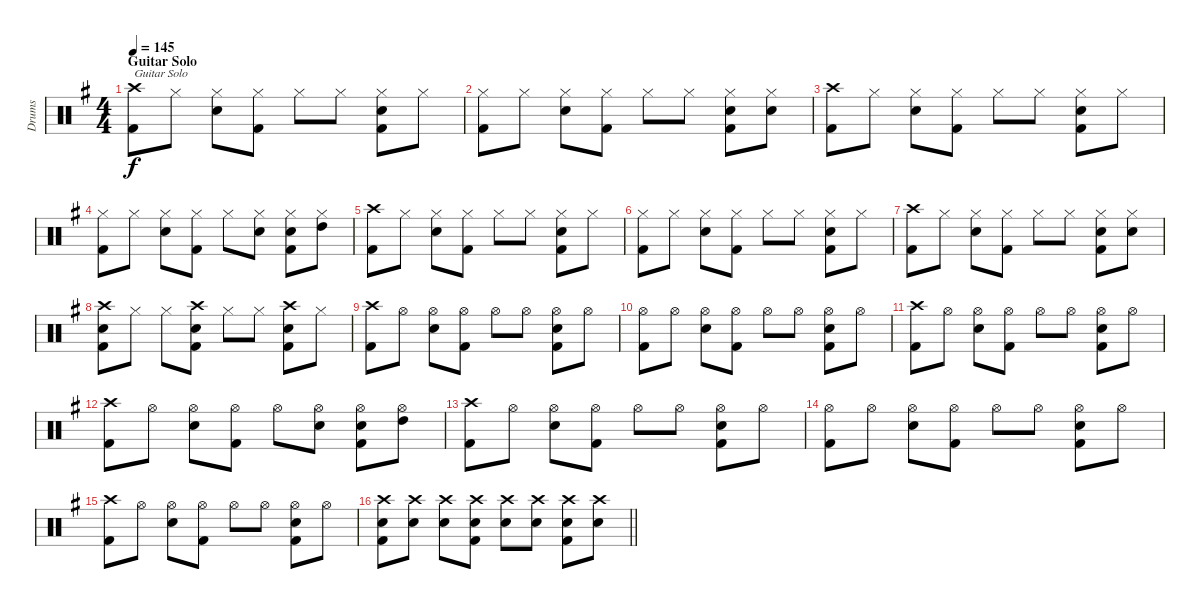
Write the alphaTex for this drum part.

\track ("Drums" "Drums") {instrument percussion}
\staff {score}
\articulation defaults
\ts (4 4)
\section ("" "Guitar Solo")
\tempo 145
\clef neutral
\ks g
("Crash high (hit)" "Kick (hit) 2").8{txt "Guitar Solo" dy f} "Hi-Hat (closed)".8 ("Hi-Hat (closed)" "Electric Snare (hit)").8 ("Hi-Hat (closed)" "Kick (hit) 2").8 "Hi-Hat (closed)".8 "Hi-Hat (closed)".8 ("Hi-Hat (closed)" "Electric Snare (hit)" "Kick (hit) 2").8 "Hi-Hat (closed)".8 |
("Hi-Hat (closed)" "Kick (hit) 2").8 "Hi-Hat (closed)".8 ("Hi-Hat (closed)" "Electric Snare (hit)").8 ("Hi-Hat (closed)" "Kick (hit) 2").8 "Hi-Hat (closed)".8 "Hi-Hat (closed)".8 ("Hi-Hat (closed)" "Electric Snare (hit)" "Kick (hit) 2").8 ("Hi-Hat (closed)" "Electric Snare (hit)").8 |
("Crash high (hit)" "Kick (hit) 2").8 "Hi-Hat (closed)".8 ("Hi-Hat (closed)" "Electric Snare (hit)").8 ("Hi-Hat (closed)" "Kick (hit) 2").8 "Hi-Hat (closed)".8 "Hi-Hat (closed)".8 ("Hi-Hat (closed)" "Electric Snare (hit)" "Kick (hit) 2").8 "Hi-Hat (closed)".8 |
("Hi-Hat (closed)" "Kick (hit) 2").8 "Hi-Hat (closed)".8 ("Hi-Hat (closed)" "Electric Snare (hit)").8 ("Hi-Hat (closed)" "Kick (hit) 2").8 "Hi-Hat (closed)".8 ("Hi-Hat (closed)" "Electric Snare (hit)").8 ("Hi-Hat (closed)" "Electric Snare (hit)" "Kick (hit) 2").8 ("Hi-Hat (closed)" "High Tom (hit)").8 |
("Crash high (hit)" "Kick (hit) 2").8 "Hi-Hat (closed)".8 ("Hi-Hat (closed)" "Electric Snare (hit)").8 ("Hi-Hat (closed)" "Kick (hit) 2").8 "Hi-Hat (closed)".8 "Hi-Hat (closed)".8 ("Hi-Hat (closed)" "Electric Snare (hit)" "Kick (hit) 2").8 "Hi-Hat (closed)".8 |
("Hi-Hat (closed)" "Kick (hit) 2").8 "Hi-Hat (closed)".8 ("Hi-Hat (closed)" "Electric Snare (hit)").8 ("Hi-Hat (closed)" "Kick (hit) 2").8 "Hi-Hat (closed)".8 "Hi-Hat (closed)".8 ("Hi-Hat (closed)" "Electric Snare (hit)" "Kick (hit) 2").8 "Hi-Hat (closed)".8 |
("Crash high (hit)" "Kick (hit) 2").8 "Hi-Hat (closed)".8 ("Hi-Hat (closed)" "Electric Snare (hit)").8 ("Hi-Hat (closed)" "Kick (hit) 2").8 "Hi-Hat (closed)".8 "Hi-Hat (closed)".8 ("Hi-Hat (closed)" "Electric Snare (hit)" "Kick (hit) 2").8 ("Hi-Hat (closed)" "Electric Snare (hit)").8 |
("Crash high (hit)" "Electric Snare (hit)" "Kick (hit) 2").8 "Hi-Hat (closed)".8 "Hi-Hat (closed)".8 ("Crash high (hit)" "Electric Snare (hit)" "Kick (hit) 2").8 "Hi-Hat (closed)".8 "Hi-Hat (closed)".8 ("Crash high (hit)" "Electric Snare (hit)" "Kick (hit) 2").8 "Hi-Hat (closed)".8 |
("Crash high (hit)" "Kick (hit) 2").8 "Hi-Hat (open)".8 ("Hi-Hat (open)" "Electric Snare (hit)").8 ("Hi-Hat (open)" "Kick (hit) 2").8 "Hi-Hat (open)".8 "Hi-Hat (open)".8 ("Hi-Hat (open)" "Electric Snare (hit)" "Kick (hit) 2").8 "Hi-Hat (open)".8 |
("Hi-Hat (open)" "Kick (hit) 2").8 "Hi-Hat (open)".8 ("Hi-Hat (open)" "Electric Snare (hit)").8 ("Hi-Hat (open)" "Kick (hit) 2").8 "Hi-Hat (open)".8 "Hi-Hat (open)".8 ("Hi-Hat (open)" "Electric Snare (hit)" "Kick (hit) 2").8 "Hi-Hat (open)".8 |
("Crash high (hit)" "Kick (hit) 2").8 "Hi-Hat (open)".8 ("Hi-Hat (open)" "Electric Snare (hit)").8 ("Hi-Hat (open)" "Kick (hit) 2").8 "Hi-Hat (open)".8 "Hi-Hat (open)".8 ("Hi-Hat (open)" "Electric Snare (hit)" "Kick (hit) 2").8 "Hi-Hat (open)".8 |
("Crash high (hit)" "Kick (hit) 2").8 "Hi-Hat (open)".8 ("Hi-Hat (open)" "Electric Snare (hit)").8 ("Hi-Hat (open)" "Kick (hit) 2").8 "Hi-Hat (open)".8 ("Hi-Hat (open)" "Electric Snare (hit)").8 ("Hi-Hat (open)" "Electric Snare (hit)" "Kick (hit) 2").8 ("Hi-Hat (open)" "High Tom (hit)").8 |
("Crash high (hit)" "Kick (hit) 2").8 "Hi-Hat (open)".8 ("Hi-Hat (open)" "Electric Snare (hit)").8 ("Hi-Hat (open)" "Kick (hit) 2").8 "Hi-Hat (open)".8 "Hi-Hat (open)".8 ("Hi-Hat (open)" "Electric Snare (hit)" "Kick (hit) 2").8 "Hi-Hat (open)".8 |
("Hi-Hat (open)" "Kick (hit) 2").8 "Hi-Hat (open)".8 ("Hi-Hat (open)" "Electric Snare (hit)").8 ("Hi-Hat (open)" "Kick (hit) 2").8 "Hi-Hat (open)".8 "Hi-Hat (open)".8 ("Hi-Hat (open)" "Electric Snare (hit)" "Kick (hit) 2").8 "Hi-Hat (open)".8 |
("Crash high (hit)" "Kick (hit) 2").8 "Hi-Hat (open)".8 ("Hi-Hat (open)" "Electric Snare (hit)").8 ("Hi-Hat (open)" "Kick (hit) 2").8 "Hi-Hat (open)".8 "Hi-Hat (open)".8 ("Hi-Hat (open)" "Electric Snare (hit)" "Kick (hit) 2").8 "Hi-Hat (open)".8 |
\barLineRight lightlight
("Crash high (hit)" "Electric Snare (hit)" "Kick (hit) 2").8 ("Crash high (hit)" "Electric Snare (hit)").8 ("Crash high (hit)" "Electric Snare (hit)").8 ("Crash high (hit)" "Electric Snare (hit)" "Kick (hit) 2").8 ("Crash high (hit)" "Electric Snare (hit)").8 ("Crash high (hit)" "Electric Snare (hit)").8 ("Crash high (hit)" "Electric Snare (hit)" "Kick (hit) 2").8 ("Crash high (hit)" "Electric Snare (hit)").8
